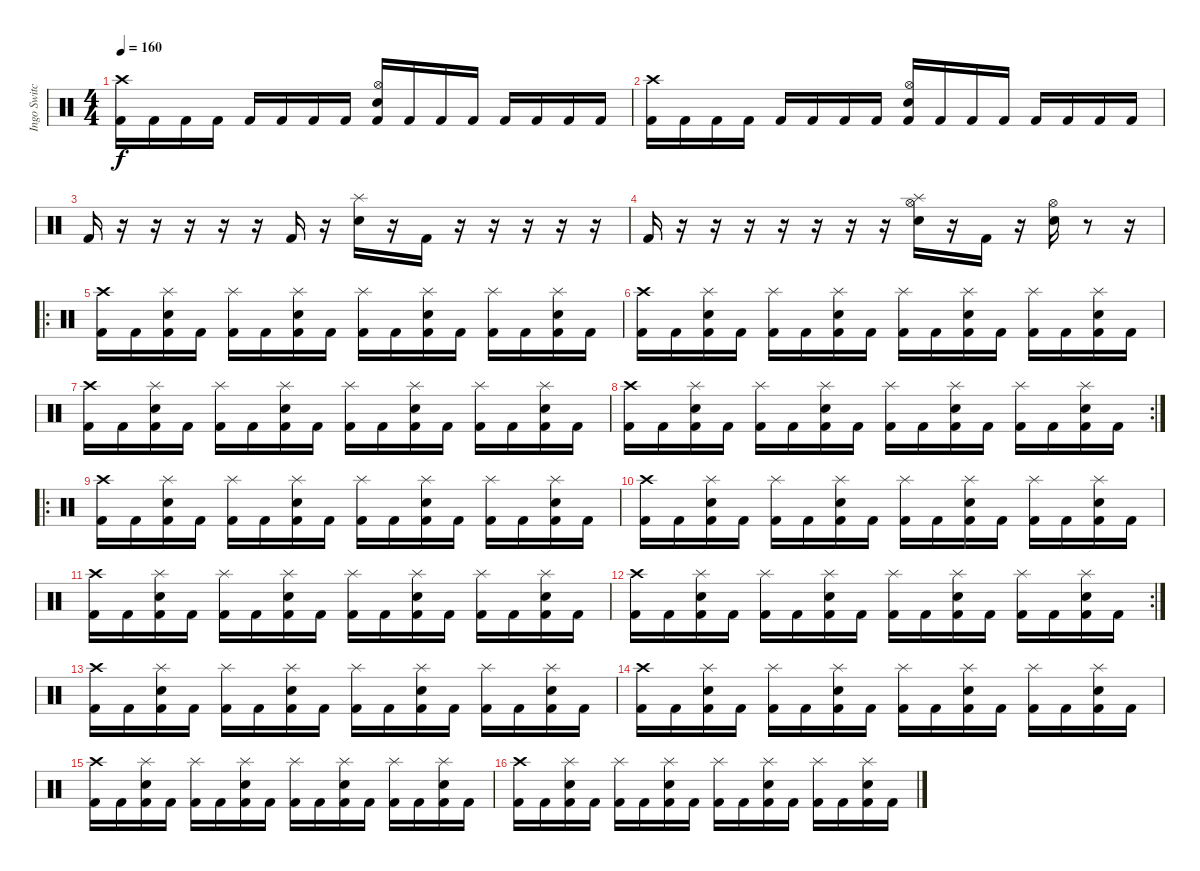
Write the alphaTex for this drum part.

\track ("Ingo Switchenberg" "Ingo Switc") {instrument percussion}
\staff {score}
\articulation defaults
\ts (4 4)
\tempo 160
\clef neutral
\ks c
("Crash high (hit)" "Kick (hit) 2").16{dy f} "Kick (hit) 2".16 "Kick (hit) 2".16 "Kick (hit) 2".16 "Kick (hit) 2".16 "Kick (hit) 2".16 "Kick (hit) 2".16 "Kick (hit) 2".16 ("Hi-Hat (open)" "Snare (hit) 2" "Kick (hit) 2").16 "Kick (hit) 2".16 "Kick (hit) 2".16 "Kick (hit) 2".16 "Kick (hit) 2".16 "Kick (hit) 2".16 "Kick (hit) 2".16 "Kick (hit) 2".16 |
("Crash high (hit)" "Kick (hit) 2").16 "Kick (hit) 2".16 "Kick (hit) 2".16 "Kick (hit) 2".16 "Kick (hit) 2".16 "Kick (hit) 2".16 "Kick (hit) 2".16 "Kick (hit) 2".16 ("Hi-Hat (open)" "Snare (hit) 2" "Kick (hit) 2").16 "Kick (hit) 2".16 "Kick (hit) 2".16 "Kick (hit) 2".16 "Kick (hit) 2".16 "Kick (hit) 2".16 "Kick (hit) 2".16 "Kick (hit) 2".16 |
"Kick (hit) 2".16 r.16 r.16 r.16 r.16 r.16 "Kick (hit) 2".16 r.16 ("Snare (hit) 2" "Splash (hit)").16 r.16 "Kick (hit) 2".16 r.16 r.16 r.16 r.16 r.16 |
"Kick (hit) 2".16 r.16 r.16 r.16 r.16 r.16 r.16 r.16 ("Hi-Hat (open)" "Snare (hit) 2" "Splash (hit)").16 r.16 "Kick (hit) 2".16 r.16 ("Hi-Hat (open)" "Snare (hit) 2").16 r.8 r.16 |
\ro
("Kick (hit) 2" "Crash high (hit)").16 "Kick (hit) 2".16 ("Splash (hit)" "Kick (hit) 2" "Snare (hit) 2").16 "Kick (hit) 2".16 ("Splash (hit)" "Kick (hit) 2").16 "Kick (hit) 2".16 ("Splash (hit)" "Kick (hit) 2" "Snare (hit) 2").16 "Kick (hit) 2".16 ("Splash (hit)" "Kick (hit) 2").16 "Kick (hit) 2".16 ("Splash (hit)" "Kick (hit) 2" "Snare (hit) 2").16 "Kick (hit) 2".16 ("Splash (hit)" "Kick (hit) 2").16 "Kick (hit) 2".16 ("Splash (hit)" "Kick (hit) 2" "Snare (hit) 2").16 "Kick (hit) 2".16 |
("Kick (hit) 2" "Crash high (hit)").16 "Kick (hit) 2".16 ("Splash (hit)" "Kick (hit) 2" "Snare (hit) 2").16 "Kick (hit) 2".16 ("Splash (hit)" "Kick (hit) 2").16 "Kick (hit) 2".16 ("Splash (hit)" "Kick (hit) 2" "Snare (hit) 2").16 "Kick (hit) 2".16 ("Splash (hit)" "Kick (hit) 2").16 "Kick (hit) 2".16 ("Splash (hit)" "Kick (hit) 2" "Snare (hit) 2").16 "Kick (hit) 2".16 ("Splash (hit)" "Kick (hit) 2").16 "Kick (hit) 2".16 ("Splash (hit)" "Kick (hit) 2" "Snare (hit) 2").16 "Kick (hit) 2".16 |
("Kick (hit) 2" "Crash high (hit)").16 "Kick (hit) 2".16 ("Splash (hit)" "Kick (hit) 2" "Snare (hit) 2").16 "Kick (hit) 2".16 ("Splash (hit)" "Kick (hit) 2").16 "Kick (hit) 2".16 ("Splash (hit)" "Kick (hit) 2" "Snare (hit) 2").16 "Kick (hit) 2".16 ("Splash (hit)" "Kick (hit) 2").16 "Kick (hit) 2".16 ("Splash (hit)" "Kick (hit) 2" "Snare (hit) 2").16 "Kick (hit) 2".16 ("Splash (hit)" "Kick (hit) 2").16 "Kick (hit) 2".16 ("Splash (hit)" "Kick (hit) 2" "Snare (hit) 2").16 "Kick (hit) 2".16 |
\rc 2
("Kick (hit) 2" "Crash high (hit)").16 "Kick (hit) 2".16 ("Splash (hit)" "Kick (hit) 2" "Snare (hit) 2").16 "Kick (hit) 2".16 ("Splash (hit)" "Kick (hit) 2").16 "Kick (hit) 2".16 ("Splash (hit)" "Kick (hit) 2" "Snare (hit) 2").16 "Kick (hit) 2".16 ("Splash (hit)" "Kick (hit) 2").16 "Kick (hit) 2".16 ("Splash (hit)" "Kick (hit) 2" "Snare (hit) 2").16 "Kick (hit) 2".16 ("Splash (hit)" "Kick (hit) 2").16 "Kick (hit) 2".16 ("Splash (hit)" "Kick (hit) 2" "Snare (hit) 2").16 "Kick (hit) 2".16 |
\ro
("Kick (hit) 2" "Crash high (hit)").16 "Kick (hit) 2".16 ("Splash (hit)" "Kick (hit) 2" "Snare (hit) 2").16 "Kick (hit) 2".16 ("Splash (hit)" "Kick (hit) 2").16 "Kick (hit) 2".16 ("Splash (hit)" "Kick (hit) 2" "Snare (hit) 2").16 "Kick (hit) 2".16 ("Splash (hit)" "Kick (hit) 2").16 "Kick (hit) 2".16 ("Splash (hit)" "Kick (hit) 2" "Snare (hit) 2").16 "Kick (hit) 2".16 ("Splash (hit)" "Kick (hit) 2").16 "Kick (hit) 2".16 ("Splash (hit)" "Kick (hit) 2" "Snare (hit) 2").16 "Kick (hit) 2".16 |
("Kick (hit) 2" "Crash high (hit)").16 "Kick (hit) 2".16 ("Splash (hit)" "Kick (hit) 2" "Snare (hit) 2").16 "Kick (hit) 2".16 ("Splash (hit)" "Kick (hit) 2").16 "Kick (hit) 2".16 ("Splash (hit)" "Kick (hit) 2" "Snare (hit) 2").16 "Kick (hit) 2".16 ("Splash (hit)" "Kick (hit) 2").16 "Kick (hit) 2".16 ("Splash (hit)" "Kick (hit) 2" "Snare (hit) 2").16 "Kick (hit) 2".16 ("Splash (hit)" "Kick (hit) 2").16 "Kick (hit) 2".16 ("Splash (hit)" "Kick (hit) 2" "Snare (hit) 2").16 "Kick (hit) 2".16 |
("Kick (hit) 2" "Crash high (hit)").16 "Kick (hit) 2".16 ("Splash (hit)" "Kick (hit) 2" "Snare (hit) 2").16 "Kick (hit) 2".16 ("Splash (hit)" "Kick (hit) 2").16 "Kick (hit) 2".16 ("Splash (hit)" "Kick (hit) 2" "Snare (hit) 2").16 "Kick (hit) 2".16 ("Splash (hit)" "Kick (hit) 2").16 "Kick (hit) 2".16 ("Splash (hit)" "Kick (hit) 2" "Snare (hit) 2").16 "Kick (hit) 2".16 ("Splash (hit)" "Kick (hit) 2").16 "Kick (hit) 2".16 ("Splash (hit)" "Kick (hit) 2" "Snare (hit) 2").16 "Kick (hit) 2".16 |
\rc 2
("Kick (hit) 2" "Crash high (hit)").16 "Kick (hit) 2".16 ("Splash (hit)" "Kick (hit) 2" "Snare (hit) 2").16 "Kick (hit) 2".16 ("Splash (hit)" "Kick (hit) 2").16 "Kick (hit) 2".16 ("Splash (hit)" "Kick (hit) 2" "Snare (hit) 2").16 "Kick (hit) 2".16 ("Splash (hit)" "Kick (hit) 2").16 "Kick (hit) 2".16 ("Splash (hit)" "Kick (hit) 2" "Snare (hit) 2").16 "Kick (hit) 2".16 ("Splash (hit)" "Kick (hit) 2").16 "Kick (hit) 2".16 ("Splash (hit)" "Kick (hit) 2" "Snare (hit) 2").16 "Kick (hit) 2".16 |
("Kick (hit) 2" "Crash high (hit)").16 "Kick (hit) 2".16 ("Splash (hit)" "Kick (hit) 2" "Snare (hit) 2").16 "Kick (hit) 2".16 ("Splash (hit)" "Kick (hit) 2").16 "Kick (hit) 2".16 ("Splash (hit)" "Kick (hit) 2" "Snare (hit) 2").16 "Kick (hit) 2".16 ("Splash (hit)" "Kick (hit) 2").16 "Kick (hit) 2".16 ("Splash (hit)" "Kick (hit) 2" "Snare (hit) 2").16 "Kick (hit) 2".16 ("Splash (hit)" "Kick (hit) 2").16 "Kick (hit) 2".16 ("Splash (hit)" "Kick (hit) 2" "Snare (hit) 2").16 "Kick (hit) 2".16 |
("Kick (hit) 2" "Crash high (hit)").16 "Kick (hit) 2".16 ("Splash (hit)" "Kick (hit) 2" "Snare (hit) 2").16 "Kick (hit) 2".16 ("Splash (hit)" "Kick (hit) 2").16 "Kick (hit) 2".16 ("Splash (hit)" "Kick (hit) 2" "Snare (hit) 2").16 "Kick (hit) 2".16 ("Splash (hit)" "Kick (hit) 2").16 "Kick (hit) 2".16 ("Splash (hit)" "Kick (hit) 2" "Snare (hit) 2").16 "Kick (hit) 2".16 ("Splash (hit)" "Kick (hit) 2").16 "Kick (hit) 2".16 ("Splash (hit)" "Kick (hit) 2" "Snare (hit) 2").16 "Kick (hit) 2".16 |
("Kick (hit) 2" "Crash high (hit)").16 "Kick (hit) 2".16 ("Splash (hit)" "Kick (hit) 2" "Snare (hit) 2").16 "Kick (hit) 2".16 ("Splash (hit)" "Kick (hit) 2").16 "Kick (hit) 2".16 ("Splash (hit)" "Kick (hit) 2" "Snare (hit) 2").16 "Kick (hit) 2".16 ("Splash (hit)" "Kick (hit) 2").16 "Kick (hit) 2".16 ("Splash (hit)" "Kick (hit) 2" "Snare (hit) 2").16 "Kick (hit) 2".16 ("Splash (hit)" "Kick (hit) 2").16 "Kick (hit) 2".16 ("Splash (hit)" "Kick (hit) 2" "Snare (hit) 2").16 "Kick (hit) 2".16 |
("Kick (hit) 2" "Crash high (hit)").16 "Kick (hit) 2".16 ("Splash (hit)" "Kick (hit) 2" "Snare (hit) 2").16 "Kick (hit) 2".16 ("Splash (hit)" "Kick (hit) 2").16 "Kick (hit) 2".16 ("Splash (hit)" "Kick (hit) 2" "Snare (hit) 2").16 "Kick (hit) 2".16 ("Splash (hit)" "Kick (hit) 2").16 "Kick (hit) 2".16 ("Splash (hit)" "Kick (hit) 2" "Snare (hit) 2").16 "Kick (hit) 2".16 ("Splash (hit)" "Kick (hit) 2").16 "Kick (hit) 2".16 ("Splash (hit)" "Kick (hit) 2" "Snare (hit) 2").16 "Kick (hit) 2".16
